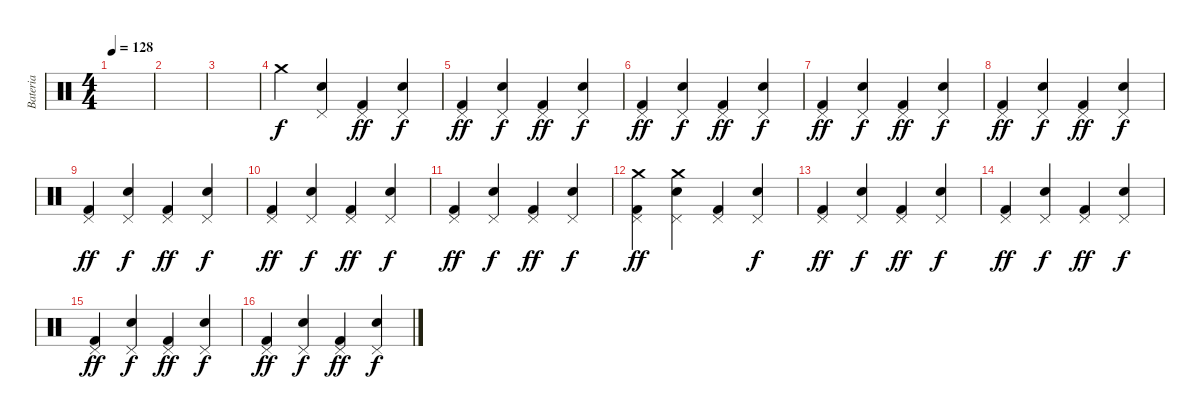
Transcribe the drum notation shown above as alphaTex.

\track ("Bateria" "Bateria") {instrument percussion}
\staff {score}
\articulation defaults
\ts (4 4)
\tempo 128
\clef neutral
\ks c
|
|
|
"Crash medium (hit)".4 ("Pedal Hi-Hat (hit)" "Electric Snare (hit)").4 ("Pedal Hi-Hat (hit)" "Kick (hit) 2").4{dy ff} ("Pedal Hi-Hat (hit)" "Electric Snare (hit)").4{dy f} |
("Pedal Hi-Hat (hit)" "Kick (hit) 2").4{dy ff} ("Pedal Hi-Hat (hit)" "Electric Snare (hit)").4{dy f} ("Pedal Hi-Hat (hit)" "Kick (hit) 2").4{dy ff} ("Pedal Hi-Hat (hit)" "Electric Snare (hit)").4{dy f} |
("Pedal Hi-Hat (hit)" "Kick (hit) 2").4{dy ff} ("Pedal Hi-Hat (hit)" "Electric Snare (hit)").4{dy f} ("Pedal Hi-Hat (hit)" "Kick (hit) 2").4{dy ff} ("Pedal Hi-Hat (hit)" "Electric Snare (hit)").4{dy f} |
("Pedal Hi-Hat (hit)" "Kick (hit) 2").4{dy ff} ("Pedal Hi-Hat (hit)" "Electric Snare (hit)").4{dy f} ("Pedal Hi-Hat (hit)" "Kick (hit) 2").4{dy ff} ("Pedal Hi-Hat (hit)" "Electric Snare (hit)").4{dy f} |
("Pedal Hi-Hat (hit)" "Kick (hit) 2").4{dy ff} ("Pedal Hi-Hat (hit)" "Electric Snare (hit)").4{dy f} ("Pedal Hi-Hat (hit)" "Kick (hit) 2").4{dy ff} ("Pedal Hi-Hat (hit)" "Electric Snare (hit)").4{dy f} |
("Pedal Hi-Hat (hit)" "Kick (hit) 2").4{dy ff} ("Pedal Hi-Hat (hit)" "Electric Snare (hit)").4{dy f} ("Pedal Hi-Hat (hit)" "Kick (hit) 2").4{dy ff} ("Pedal Hi-Hat (hit)" "Electric Snare (hit)").4{dy f} |
("Pedal Hi-Hat (hit)" "Kick (hit) 2").4{dy ff} ("Pedal Hi-Hat (hit)" "Electric Snare (hit)").4{dy f} ("Pedal Hi-Hat (hit)" "Kick (hit) 2").4{dy ff} ("Pedal Hi-Hat (hit)" "Electric Snare (hit)").4{dy f} |
("Pedal Hi-Hat (hit)" "Kick (hit) 2").4{dy ff} ("Pedal Hi-Hat (hit)" "Electric Snare (hit)").4{dy f} ("Pedal Hi-Hat (hit)" "Kick (hit) 2").4{dy ff} ("Pedal Hi-Hat (hit)" "Electric Snare (hit)").4{dy f} |
("Pedal Hi-Hat (hit)" "Kick (hit) 2" "Crash medium (hit)").4{dy ff} ("Pedal Hi-Hat (hit)" "Electric Snare (hit)" "Crash medium (hit)").4 ("Pedal Hi-Hat (hit)" "Kick (hit) 2").4 ("Pedal Hi-Hat (hit)" "Electric Snare (hit)").4{dy f} |
("Pedal Hi-Hat (hit)" "Kick (hit) 2").4{dy ff} ("Pedal Hi-Hat (hit)" "Electric Snare (hit)").4{dy f} ("Pedal Hi-Hat (hit)" "Kick (hit) 2").4{dy ff} ("Pedal Hi-Hat (hit)" "Electric Snare (hit)").4{dy f} |
("Pedal Hi-Hat (hit)" "Kick (hit) 2").4{dy ff} ("Pedal Hi-Hat (hit)" "Electric Snare (hit)").4{dy f} ("Pedal Hi-Hat (hit)" "Kick (hit) 2").4{dy ff} ("Pedal Hi-Hat (hit)" "Electric Snare (hit)").4{dy f} |
("Pedal Hi-Hat (hit)" "Kick (hit) 2").4{dy ff} ("Pedal Hi-Hat (hit)" "Electric Snare (hit)").4{dy f} ("Pedal Hi-Hat (hit)" "Kick (hit) 2").4{dy ff} ("Pedal Hi-Hat (hit)" "Electric Snare (hit)").4{dy f} |
("Pedal Hi-Hat (hit)" "Kick (hit) 2").4{dy ff} ("Pedal Hi-Hat (hit)" "Electric Snare (hit)").4{dy f} ("Pedal Hi-Hat (hit)" "Kick (hit) 2").4{dy ff} ("Pedal Hi-Hat (hit)" "Electric Snare (hit)").4{dy f}
